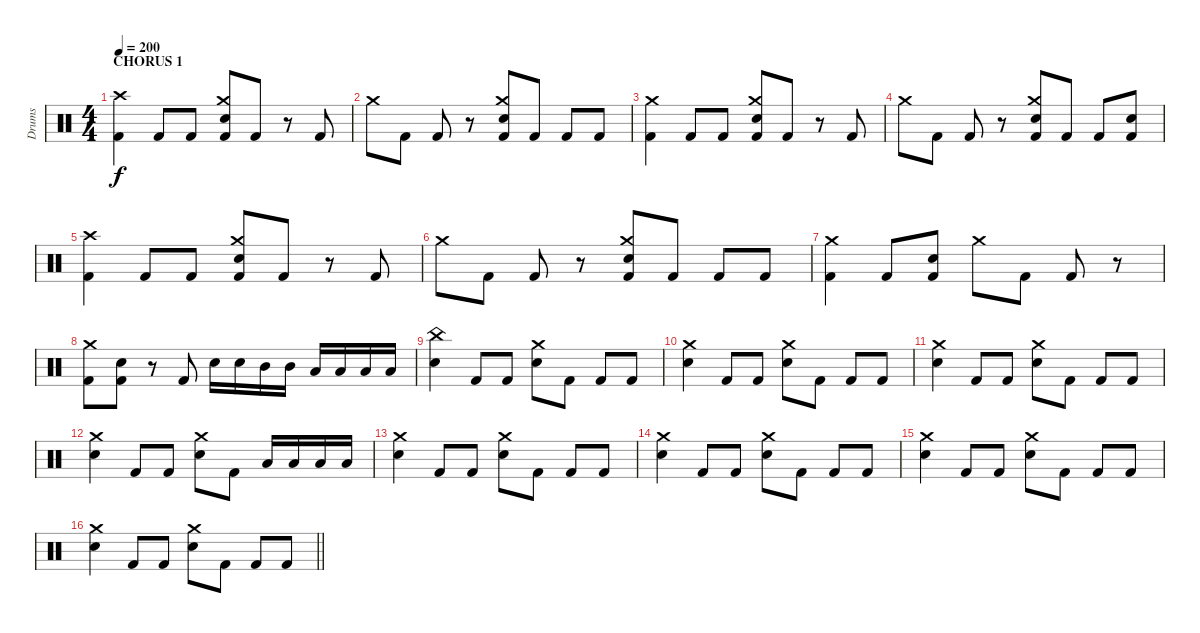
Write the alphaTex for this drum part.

\track ("Drums" "Drums") {instrument percussion}
\staff {score}
\articulation defaults
\ts (4 4)
\section ("" "CHORUS 1")
\tempo 200
\clef neutral
\ks c
("Crash high (hit)" "Kick (hit) 2").4{dy f} "Kick (hit) 2".8 "Kick (hit) 2".8 ("Crash medium (hit)" "Electric Snare (hit)" "Kick (hit) 2").8 "Kick (hit) 2".8 r.8 "Kick (hit) 2".8 |
"Crash medium (hit)".8 "Kick (hit) 2".8 "Kick (hit) 2".8 r.8 ("Crash medium (hit)" "Electric Snare (hit)" "Kick (hit) 2").8 "Kick (hit) 2".8 "Kick (hit) 2".8 "Kick (hit) 2".8 |
("Crash medium (hit)" "Kick (hit) 2").4 "Kick (hit) 2".8 "Kick (hit) 2".8 ("Crash medium (hit)" "Electric Snare (hit)" "Kick (hit) 2").8 "Kick (hit) 2".8 r.8 "Kick (hit) 2".8 |
"Crash medium (hit)".8 "Kick (hit) 2".8 "Kick (hit) 2".8 r.8 ("Crash medium (hit)" "Electric Snare (hit)" "Kick (hit) 2").8 "Kick (hit) 2".8 "Kick (hit) 2".8 ("Electric Snare (hit)" "Kick (hit) 2").8 |
("Crash high (hit)" "Kick (hit) 2").4 "Kick (hit) 2".8 "Kick (hit) 2".8 ("Crash medium (hit)" "Electric Snare (hit)" "Kick (hit) 2").8 "Kick (hit) 2".8 r.8 "Kick (hit) 2".8 |
"Crash medium (hit)".8 "Kick (hit) 2".8 "Kick (hit) 2".8 r.8 ("Crash medium (hit)" "Electric Snare (hit)" "Kick (hit) 2").8 "Kick (hit) 2".8 "Kick (hit) 2".8 "Kick (hit) 2".8 |
("Crash medium (hit)" "Kick (hit) 2").4 "Kick (hit) 2".8 ("Electric Snare (hit)" "Kick (hit) 2").8 "Crash medium (hit)".8 "Kick (hit) 2".8 "Kick (hit) 2".8 r.8 |
("Crash medium (hit)" "Kick (hit) 2").8 ("Electric Snare (hit)" "Kick (hit) 2").8 r.8 "Kick (hit) 2".8 "Electric Snare (hit)".16 "Electric Snare (hit)".16 "Mid Tom (hit)".16 "Mid Tom (hit)".16 "Low Tom (hit)".16 "Low Tom (hit)".16 "Low Floor Tom (hit)".16 "Low Floor Tom (hit)".16 |
("China (hit)" "Electric Snare (hit)").4 "Kick (hit) 2".8 "Kick (hit) 2".8 ("Crash medium (hit)" "Electric Snare (hit)").8 "Kick (hit) 2".8 "Kick (hit) 2".8 "Kick (hit) 2".8 |
("Crash medium (hit)" "Electric Snare (hit)").4 "Kick (hit) 2".8 "Kick (hit) 2".8 ("Crash medium (hit)" "Electric Snare (hit)").8 "Kick (hit) 2".8 "Kick (hit) 2".8 "Kick (hit) 2".8 |
("Crash medium (hit)" "Electric Snare (hit)").4 "Kick (hit) 2".8 "Kick (hit) 2".8 ("Crash medium (hit)" "Electric Snare (hit)").8 "Kick (hit) 2".8 "Kick (hit) 2".8 "Kick (hit) 2".8 |
("Crash medium (hit)" "Electric Snare (hit)").4 "Kick (hit) 2".8 "Kick (hit) 2".8 ("Crash medium (hit)" "Electric Snare (hit)").8 "Kick (hit) 2".8 "Low Tom (hit)".16 "Low Tom (hit)".16 "Low Floor Tom (hit)".16 "Low Floor Tom (hit)".16 |
("Crash medium (hit)" "Electric Snare (hit)").4 "Kick (hit) 2".8 "Kick (hit) 2".8 ("Crash medium (hit)" "Electric Snare (hit)").8 "Kick (hit) 2".8 "Kick (hit) 2".8 "Kick (hit) 2".8 |
("Crash medium (hit)" "Electric Snare (hit)").4 "Kick (hit) 2".8 "Kick (hit) 2".8 ("Crash medium (hit)" "Electric Snare (hit)").8 "Kick (hit) 2".8 "Kick (hit) 2".8 "Kick (hit) 2".8 |
("Crash medium (hit)" "Electric Snare (hit)").4 "Kick (hit) 2".8 "Kick (hit) 2".8 ("Crash medium (hit)" "Electric Snare (hit)").8 "Kick (hit) 2".8 "Kick (hit) 2".8 "Kick (hit) 2".8 |
\barLineRight lightlight
("Crash medium (hit)" "Electric Snare (hit)").4 "Kick (hit) 2".8 "Kick (hit) 2".8 ("Crash medium (hit)" "Electric Snare (hit)").8 "Kick (hit) 2".8 "Kick (hit) 2".8 "Kick (hit) 2".8
